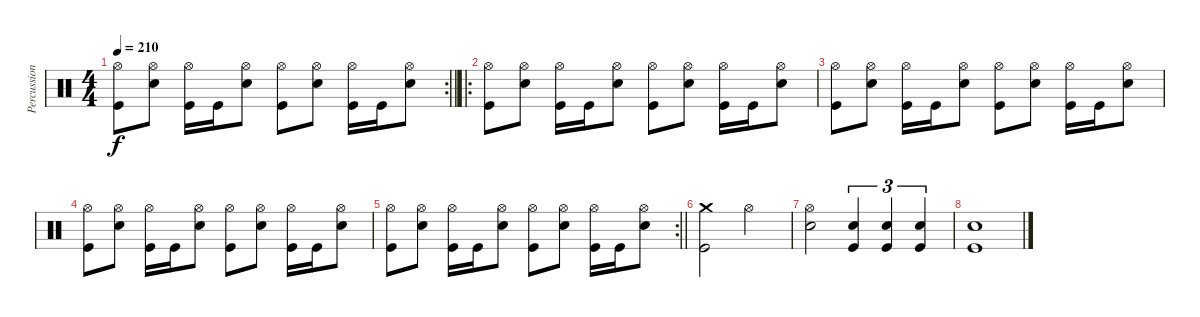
\track ("Percussion" "Percussion") {instrument percussion}
\staff {score}
\articulation defaults
\rc 2
\ts (4 4)
\tempo 210
\clef neutral
\barLineRight lightlight
\ks c
("Hi-Hat (open)" "Kick (hit)").8{dy f} ("Hi-Hat (open)" "Snare (hit) 2").8 ("Hi-Hat (open)" "Kick (hit)").16 "Kick (hit)".16 ("Hi-Hat (open)" "Snare (hit) 2").8 ("Hi-Hat (open)" "Kick (hit)").8 ("Hi-Hat (open)" "Snare (hit) 2").8 ("Hi-Hat (open)" "Kick (hit)").16 "Kick (hit)".16 ("Hi-Hat (open)" "Snare (hit) 2").8 |
\ro
("Hi-Hat (open)" "Kick (hit)").8 ("Hi-Hat (open)" "Snare (hit) 2").8 ("Hi-Hat (open)" "Kick (hit)").16 "Kick (hit)".16 ("Hi-Hat (open)" "Snare (hit) 2").8 ("Hi-Hat (open)" "Kick (hit)").8 ("Hi-Hat (open)" "Snare (hit) 2").8 ("Hi-Hat (open)" "Kick (hit)").16 "Kick (hit)".16 ("Hi-Hat (open)" "Snare (hit) 2").8 |
("Hi-Hat (open)" "Kick (hit)").8 ("Hi-Hat (open)" "Snare (hit) 2").8 ("Hi-Hat (open)" "Kick (hit)").16 "Kick (hit)".16 ("Hi-Hat (open)" "Snare (hit) 2").8 ("Hi-Hat (open)" "Kick (hit)").8 ("Hi-Hat (open)" "Snare (hit) 2").8 ("Hi-Hat (open)" "Kick (hit)").16 "Kick (hit)".16 ("Hi-Hat (open)" "Snare (hit) 2").8 |
("Hi-Hat (open)" "Kick (hit)").8 ("Hi-Hat (open)" "Snare (hit) 2").8 ("Hi-Hat (open)" "Kick (hit)").16 "Kick (hit)".16 ("Hi-Hat (open)" "Snare (hit) 2").8 ("Hi-Hat (open)" "Kick (hit)").8 ("Hi-Hat (open)" "Snare (hit) 2").8 ("Hi-Hat (open)" "Kick (hit)").16 "Kick (hit)".16 ("Hi-Hat (open)" "Snare (hit) 2").8 |
\rc 2
\barLineRight lightlight
("Hi-Hat (open)" "Kick (hit)").8 ("Hi-Hat (open)" "Snare (hit) 2").8 ("Hi-Hat (open)" "Kick (hit)").16 "Kick (hit)".16 ("Hi-Hat (open)" "Snare (hit) 2").8 ("Hi-Hat (open)" "Kick (hit)").8 ("Hi-Hat (open)" "Snare (hit) 2").8 ("Hi-Hat (open)" "Kick (hit)").16 "Kick (hit)".16 ("Hi-Hat (open)" "Snare (hit) 2").8 |
("Crash medium (hit)" "Kick (hit)").2 "Hi-Hat (open)".2 |
("Hi-Hat (open)" "Snare (hit) 2").2 ("Snare (hit) 2" "Kick (hit)").4{tu (3 2)} ("Snare (hit) 2" "Kick (hit)").4{tu (3 2)} ("Snare (hit) 2" "Kick (hit)").4{tu (3 2)} |
("Snare (hit) 2" "Kick (hit)").1
